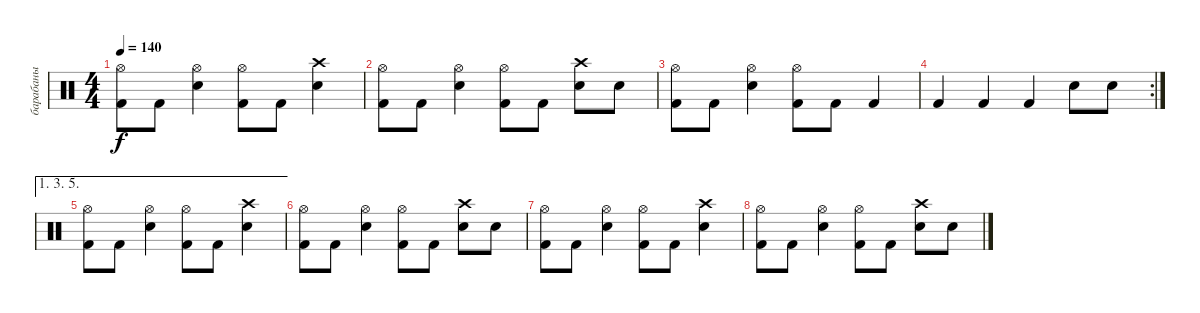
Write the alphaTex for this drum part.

\track ("барабаны" "барабаны") {instrument percussion}
\staff {score}
\articulation defaults
\ts (4 4)
\tempo 140
\clef neutral
\ks c
("Hi-Hat (open)" "Kick (hit) 2").8{dy f} "Kick (hit) 2".8 ("Hi-Hat (open)" "Snare (hit) 2").4 ("Hi-Hat (open)" "Kick (hit) 2").8 "Kick (hit) 2".8 ("Crash high (hit)" "Snare (hit) 2").4 |
("Hi-Hat (open)" "Kick (hit) 2").8 "Kick (hit) 2".8 ("Hi-Hat (open)" "Snare (hit) 2").4 ("Hi-Hat (open)" "Kick (hit) 2").8 "Kick (hit) 2".8 ("Crash high (hit)" "Snare (hit) 2").8 "Snare (hit) 2".8 |
("Hi-Hat (open)" "Kick (hit) 2").8 "Kick (hit) 2".8 ("Hi-Hat (open)" "Snare (hit) 2").4 ("Hi-Hat (open)" "Kick (hit) 2").8 "Kick (hit) 2".8 "Kick (hit) 2".4 |
\rc 2 "Kick (hit) 2".4 "Kick (hit) 2".4 "Kick (hit) 2".4 "Snare (hit) 2".8 "Snare (hit) 2".8
|
\ae (1 3 5)
("Hi-Hat (open)" "Kick (hit) 2").8 "Kick (hit) 2".8 ("Hi-Hat (open)" "Snare (hit) 2").4 ("Hi-Hat (open)" "Kick (hit) 2").8 "Kick (hit) 2".8 ("Crash high (hit)" "Snare (hit) 2").4 |
("Hi-Hat (open)" "Kick (hit) 2").8 "Kick (hit) 2".8 ("Hi-Hat (open)" "Snare (hit) 2").4 ("Hi-Hat (open)" "Kick (hit) 2").8 "Kick (hit) 2".8 ("Crash high (hit)" "Snare (hit) 2").8 "Snare (hit) 2".8 |
("Hi-Hat (open)" "Kick (hit) 2").8 "Kick (hit) 2".8 ("Hi-Hat (open)" "Snare (hit) 2").4 ("Hi-Hat (open)" "Kick (hit) 2").8 "Kick (hit) 2".8 ("Crash high (hit)" "Snare (hit) 2").4 |
("Hi-Hat (open)" "Kick (hit) 2").8 "Kick (hit) 2".8 ("Hi-Hat (open)" "Snare (hit) 2").4 ("Hi-Hat (open)" "Kick (hit) 2").8 "Kick (hit) 2".8 ("Crash high (hit)" "Snare (hit) 2").8 "Snare (hit) 2".8
